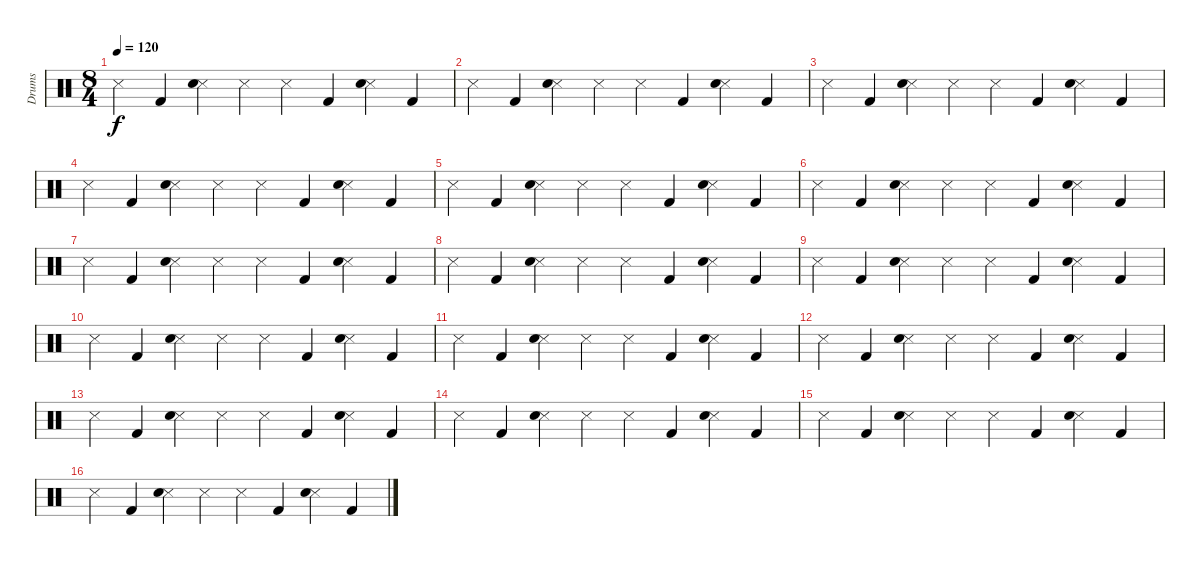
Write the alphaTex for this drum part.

\track ("Drums" "Drums") {instrument percussion}
\staff {score}
\articulation defaults
\ts (8 4)
\tempo 120
\clef neutral
\ks c "Metronome (hit)".4{dy f} "Kick (hit) 2".4
("Metronome (hit)" "Snare (hit) 2").4 "Metronome (hit)".4 "Metronome (hit)".4 "Kick (hit) 2".4 ("Metronome (hit)" "Snare (hit) 2").4 "Kick (hit) 2".4 |
"Metronome (hit)".4 "Kick (hit) 2".4 ("Metronome (hit)" "Snare (hit) 2").4 "Metronome (hit)".4 "Metronome (hit)".4 "Kick (hit) 2".4 ("Metronome (hit)" "Snare (hit) 2").4 "Kick (hit) 2".4 |
"Metronome (hit)".4 "Kick (hit) 2".4 ("Metronome (hit)" "Snare (hit) 2").4 "Metronome (hit)".4 "Metronome (hit)".4 "Kick (hit) 2".4 ("Metronome (hit)" "Snare (hit) 2").4 "Kick (hit) 2".4 |
"Metronome (hit)".4 "Kick (hit) 2".4 ("Metronome (hit)" "Snare (hit) 2").4 "Metronome (hit)".4 "Metronome (hit)".4 "Kick (hit) 2".4 ("Metronome (hit)" "Snare (hit) 2").4 "Kick (hit) 2".4 |
"Metronome (hit)".4 "Kick (hit) 2".4 ("Metronome (hit)" "Snare (hit) 2").4 "Metronome (hit)".4 "Metronome (hit)".4 "Kick (hit) 2".4 ("Metronome (hit)" "Snare (hit) 2").4 "Kick (hit) 2".4 |
"Metronome (hit)".4 "Kick (hit) 2".4 ("Metronome (hit)" "Snare (hit) 2").4 "Metronome (hit)".4 "Metronome (hit)".4 "Kick (hit) 2".4 ("Metronome (hit)" "Snare (hit) 2").4 "Kick (hit) 2".4 |
"Metronome (hit)".4 "Kick (hit) 2".4 ("Metronome (hit)" "Snare (hit) 2").4 "Metronome (hit)".4 "Metronome (hit)".4 "Kick (hit) 2".4 ("Metronome (hit)" "Snare (hit) 2").4 "Kick (hit) 2".4 |
"Metronome (hit)".4 "Kick (hit) 2".4 ("Metronome (hit)" "Snare (hit) 2").4 "Metronome (hit)".4 "Metronome (hit)".4 "Kick (hit) 2".4 ("Metronome (hit)" "Snare (hit) 2").4 "Kick (hit) 2".4 |
"Metronome (hit)".4 "Kick (hit) 2".4 ("Metronome (hit)" "Snare (hit) 2").4 "Metronome (hit)".4 "Metronome (hit)".4 "Kick (hit) 2".4 ("Metronome (hit)" "Snare (hit) 2").4 "Kick (hit) 2".4 |
"Metronome (hit)".4 "Kick (hit) 2".4 ("Metronome (hit)" "Snare (hit) 2").4 "Metronome (hit)".4 "Metronome (hit)".4 "Kick (hit) 2".4 ("Metronome (hit)" "Snare (hit) 2").4 "Kick (hit) 2".4 |
"Metronome (hit)".4 "Kick (hit) 2".4 ("Metronome (hit)" "Snare (hit) 2").4 "Metronome (hit)".4 "Metronome (hit)".4 "Kick (hit) 2".4 ("Metronome (hit)" "Snare (hit) 2").4 "Kick (hit) 2".4 |
"Metronome (hit)".4 "Kick (hit) 2".4 ("Metronome (hit)" "Snare (hit) 2").4 "Metronome (hit)".4 "Metronome (hit)".4 "Kick (hit) 2".4 ("Metronome (hit)" "Snare (hit) 2").4 "Kick (hit) 2".4 |
"Metronome (hit)".4 "Kick (hit) 2".4 ("Metronome (hit)" "Snare (hit) 2").4 "Metronome (hit)".4 "Metronome (hit)".4 "Kick (hit) 2".4 ("Metronome (hit)" "Snare (hit) 2").4 "Kick (hit) 2".4 |
"Metronome (hit)".4 "Kick (hit) 2".4 ("Metronome (hit)" "Snare (hit) 2").4 "Metronome (hit)".4 "Metronome (hit)".4 "Kick (hit) 2".4 ("Metronome (hit)" "Snare (hit) 2").4 "Kick (hit) 2".4 |
"Metronome (hit)".4 "Kick (hit) 2".4 ("Metronome (hit)" "Snare (hit) 2").4 "Metronome (hit)".4 "Metronome (hit)".4 "Kick (hit) 2".4 ("Metronome (hit)" "Snare (hit) 2").4 "Kick (hit) 2".4 |
"Metronome (hit)".4 "Kick (hit) 2".4 ("Metronome (hit)" "Snare (hit) 2").4 "Metronome (hit)".4 "Metronome (hit)".4 "Kick (hit) 2".4 ("Metronome (hit)" "Snare (hit) 2").4 "Kick (hit) 2".4
